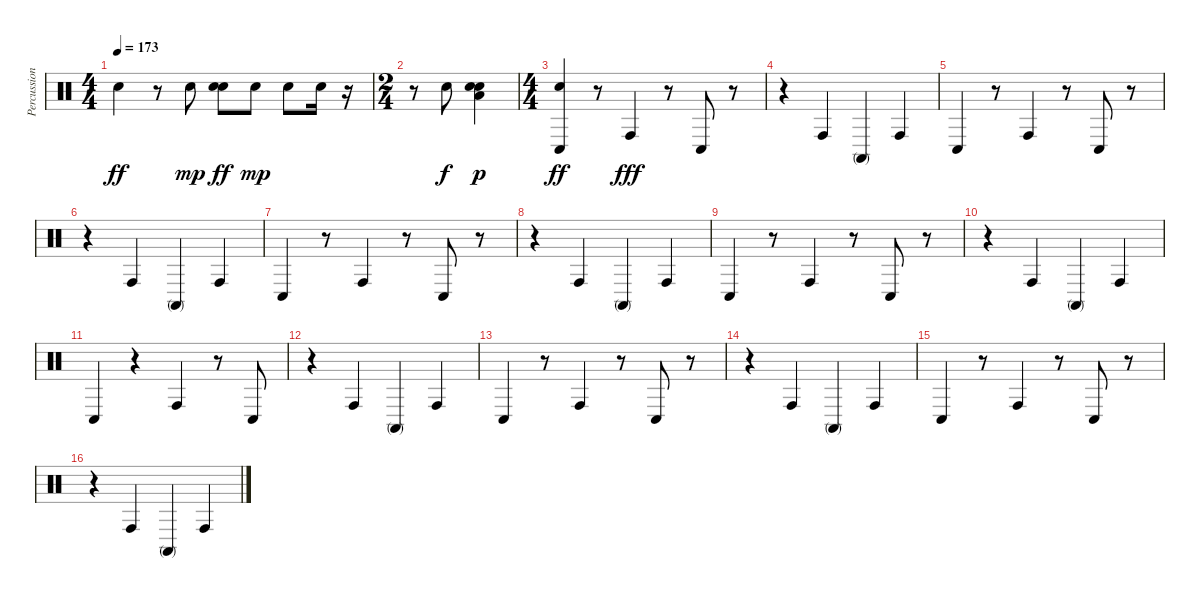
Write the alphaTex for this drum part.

\track ("Percussion" "Percussion") {instrument percussion}
\staff {score}
\articulation defaults
\ts (4 4)
\tempo 173
\clef neutral
\ks c "Hand Clap (hit)".4{dy ff}
r.8 "Hand Clap (hit)".8{dy mp} ("Snare (hit) 2" "Hand Clap (hit)").8{dy ff} "Hand Clap (hit)".8{dy mp} "Hand Clap (hit)".8 "Hand Clap (hit)".16 r.16 |
\ts (2 4)
r.8 "Hand Clap (hit)".8{dy f} ("Hand Clap (hit)" "Snare (hit) 2" "Low Floor Tom (hit)").4{dy p} |
\ts (4 4)
("Conga low (hit)" "Hand Clap (hit)").4{dy ff} r.8 "Conga high (hit)".4{dy fff} r.8 "Conga low (hit)".8 r.8 |
r.4 "Conga high (hit)".4 "Conga high (mute)".4 "Conga high (hit)".4 |
"Conga low (hit)".4 r.8 "Conga high (hit)".4 r.8 "Conga low (hit)".8 r.8 |
r.4 "Conga high (hit)".4 "Conga high (mute)".4 "Conga high (hit)".4 |
"Conga low (hit)".4 r.8 "Conga high (hit)".4 r.8 "Conga low (hit)".8 r.8 |
r.4 "Conga high (hit)".4 "Conga high (mute)".4 "Conga high (hit)".4 |
"Conga low (hit)".4 r.8 "Conga high (hit)".4 r.8 "Conga low (hit)".8 r.8 |
r.4 "Conga high (hit)".4 "Conga high (mute)".4 "Conga high (hit)".4 |
"Conga low (hit)".4 r.4 "Conga high (hit)".4 r.8 "Conga low (hit)".8 |
r.4 "Conga high (hit)".4 "Conga high (mute)".4 "Conga high (hit)".4 |
"Conga low (hit)".4 r.8 "Conga high (hit)".4 r.8 "Conga low (hit)".8 r.8 |
r.4 "Conga high (hit)".4 "Conga high (mute)".4 "Conga high (hit)".4 |
"Conga low (hit)".4 r.8 "Conga high (hit)".4 r.8 "Conga low (hit)".8 r.8 |
r.4 "Conga high (hit)".4 "Conga high (mute)".4 "Conga high (hit)".4
